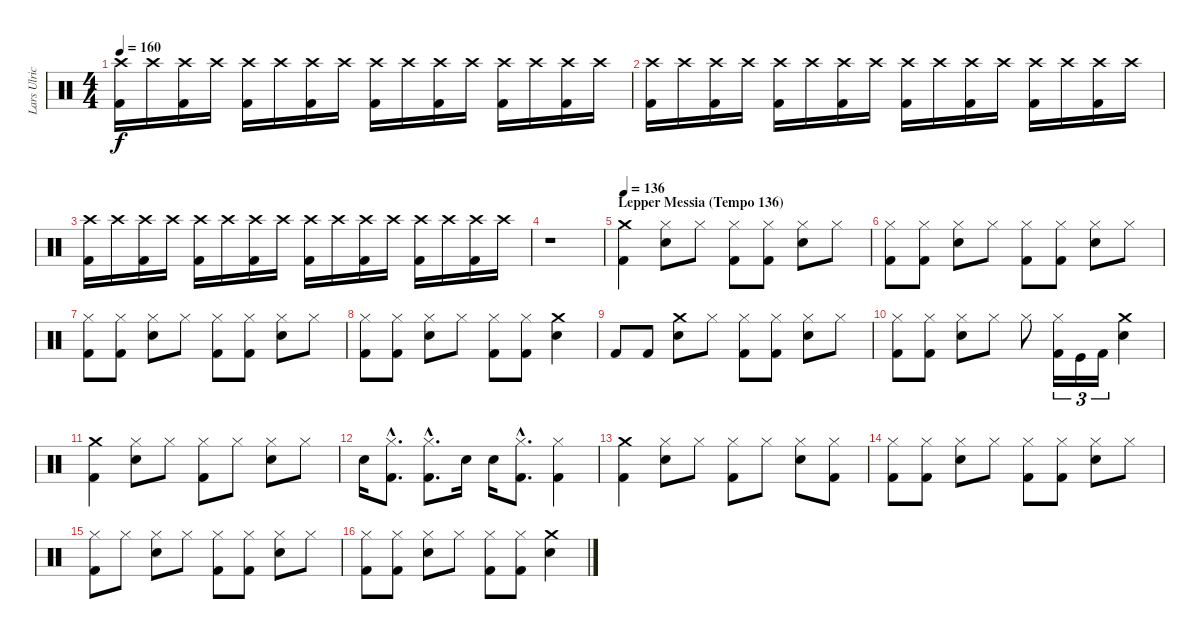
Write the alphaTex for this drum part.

\track ("Lars Ulrich (Drums)" "Lars Ulric") {instrument percussion}
\staff {score}
\articulation defaults
\ts (4 4)
\tempo 160
\clef neutral
\ks c
("Crash high (hit)" "Kick (hit) 2").16{dy f} "Crash high (hit)".16 ("Crash high (hit)" "Kick (hit) 2").16 "Crash high (hit)".16 ("Crash high (hit)" "Kick (hit) 2").16 "Crash high (hit)".16 ("Crash high (hit)" "Kick (hit) 2").16 "Crash high (hit)".16 ("Crash high (hit)" "Kick (hit) 2").16 "Crash high (hit)".16 ("Crash high (hit)" "Kick (hit) 2").16 "Crash high (hit)".16 ("Crash high (hit)" "Kick (hit) 2").16 "Crash high (hit)".16 ("Crash high (hit)" "Kick (hit) 2").16 "Crash high (hit)".16 |
("Crash high (hit)" "Kick (hit) 2").16 "Crash high (hit)".16 ("Crash high (hit)" "Kick (hit) 2").16 "Crash high (hit)".16 ("Crash high (hit)" "Kick (hit) 2").16 "Crash high (hit)".16 ("Crash high (hit)" "Kick (hit) 2").16 "Crash high (hit)".16 ("Crash high (hit)" "Kick (hit) 2").16 "Crash high (hit)".16 ("Crash high (hit)" "Kick (hit) 2").16 "Crash high (hit)".16 ("Crash high (hit)" "Kick (hit) 2").16 "Crash high (hit)".16 ("Crash high (hit)" "Kick (hit) 2").16 "Crash high (hit)".16 |
("Crash high (hit)" "Kick (hit) 2").16 "Crash high (hit)".16 ("Crash high (hit)" "Kick (hit) 2").16 "Crash high (hit)".16 ("Crash high (hit)" "Kick (hit) 2").16 "Crash high (hit)".16 ("Crash high (hit)" "Kick (hit) 2").16 "Crash high (hit)".16 ("Crash high (hit)" "Kick (hit) 2").16 "Crash high (hit)".16 ("Crash high (hit)" "Kick (hit) 2").16 "Crash high (hit)".16 ("Crash high (hit)" "Kick (hit) 2").16 "Crash high (hit)".16 ("Crash high (hit)" "Kick (hit) 2").16 "Crash high (hit)".16 |
r.1 |
\section ("" "Lepper Messia (Tempo 136)")
\tempo 136
("Kick (hit) 2" "Crash medium (hit)").4 ("Hi-Hat (closed)" "Snare (hit) 2").8 "Hi-Hat (closed)".8 ("Kick (hit) 2" "Hi-Hat (closed)").8 ("Kick (hit) 2" "Hi-Hat (closed)").8 ("Snare (hit) 2" "Hi-Hat (closed)").8 "Hi-Hat (closed)".8 |
("Hi-Hat (closed)" "Kick (hit) 2").8 ("Hi-Hat (closed)" "Kick (hit) 2").8 ("Snare (hit) 2" "Hi-Hat (closed)").8 "Hi-Hat (closed)".8 ("Hi-Hat (closed)" "Kick (hit) 2").8 ("Hi-Hat (closed)" "Kick (hit) 2").8 ("Snare (hit) 2" "Hi-Hat (closed)").8 "Hi-Hat (closed)".8 |
("Hi-Hat (closed)" "Kick (hit) 2").8 ("Hi-Hat (closed)" "Kick (hit) 2").8 ("Snare (hit) 2" "Hi-Hat (closed)").8 "Hi-Hat (closed)".8 ("Hi-Hat (closed)" "Kick (hit) 2").8 ("Hi-Hat (closed)" "Kick (hit) 2").8 ("Snare (hit) 2" "Hi-Hat (closed)").8 "Hi-Hat (closed)".8 |
("Hi-Hat (closed)" "Kick (hit) 2").8 ("Hi-Hat (closed)" "Kick (hit) 2").8 ("Snare (hit) 2" "Hi-Hat (closed)").8 "Hi-Hat (closed)".8 ("Hi-Hat (closed)" "Kick (hit) 2").8 ("Hi-Hat (closed)" "Kick (hit) 2").8 ("Snare (hit) 2" "Crash medium (hit)").4 |
"Kick (hit) 2".8 "Kick (hit) 2".8 ("Crash medium (hit)" "Snare (hit) 2").8 "Hi-Hat (closed)".8 ("Hi-Hat (closed)" "Kick (hit) 2").8 ("Hi-Hat (closed)" "Kick (hit) 2").8 ("Snare (hit) 2" "Hi-Hat (closed)").8 "Hi-Hat (closed)".8 |
("Hi-Hat (closed)" "Kick (hit) 2").8 ("Hi-Hat (closed)" "Kick (hit) 2").8 ("Snare (hit) 2" "Hi-Hat (closed)").8 "Hi-Hat (closed)".8 "Hi-Hat (closed)".8 ("Hi-Hat (closed)" "Kick (hit) 2").16{tu (3 2)} "Kick (hit)".16{tu (3 2)} "Kick (hit) 2".16{tu (3 2)} ("Snare (hit) 2" "Crash medium (hit)").4 |
("Crash medium (hit)" "Kick (hit) 2").4 ("Hi-Hat (closed)" "Snare (hit) 2").8 "Hi-Hat (closed)".8 ("Hi-Hat (closed)" "Kick (hit) 2").8 "Hi-Hat (closed)".8 ("Snare (hit) 2" "Hi-Hat (closed)").8 "Hi-Hat (closed)".8 |
"Snare (hit) 2".16 ("Kick (hit) 2"{hac} "Hi-Hat (closed)"{hac}).8{d} ("Kick (hit) 2"{hac} "Hi-Hat (closed)"{hac}).8{d} "Snare (hit) 2".16 "Snare (hit) 2".16 ("Kick (hit) 2"{hac} "Hi-Hat (closed)"{hac}).8{d} ("Hi-Hat (closed)" "Kick (hit) 2").4 |
("Kick (hit) 2" "Crash medium (hit)").4 ("Hi-Hat (closed)" "Snare (hit) 2").8 "Hi-Hat (closed)".8 ("Kick (hit) 2" "Hi-Hat (closed)").8 "Hi-Hat (closed)".8 ("Snare (hit) 2" "Hi-Hat (closed)").8 ("Kick (hit) 2" "Hi-Hat (closed)").8 |
("Hi-Hat (closed)" "Kick (hit) 2").8 ("Hi-Hat (closed)" "Kick (hit) 2").8 ("Snare (hit) 2" "Hi-Hat (closed)").8 "Hi-Hat (closed)".8 ("Hi-Hat (closed)" "Kick (hit) 2").8 ("Hi-Hat (closed)" "Kick (hit) 2").8 ("Snare (hit) 2" "Hi-Hat (closed)").8 "Hi-Hat (closed)".8 |
("Hi-Hat (closed)" "Kick (hit) 2").8 "Hi-Hat (closed)".8 ("Snare (hit) 2" "Hi-Hat (closed)").8 "Hi-Hat (closed)".8 ("Hi-Hat (closed)" "Kick (hit) 2").8 ("Hi-Hat (closed)" "Kick (hit) 2").8 ("Snare (hit) 2" "Hi-Hat (closed)").8 "Hi-Hat (closed)".8 |
("Hi-Hat (closed)" "Kick (hit) 2").8 ("Hi-Hat (closed)" "Kick (hit) 2").8 ("Snare (hit) 2" "Hi-Hat (closed)").8 "Hi-Hat (closed)".8 ("Hi-Hat (closed)" "Kick (hit) 2").8 ("Hi-Hat (closed)" "Kick (hit) 2").8 ("Snare (hit) 2" "Crash medium (hit)").4
